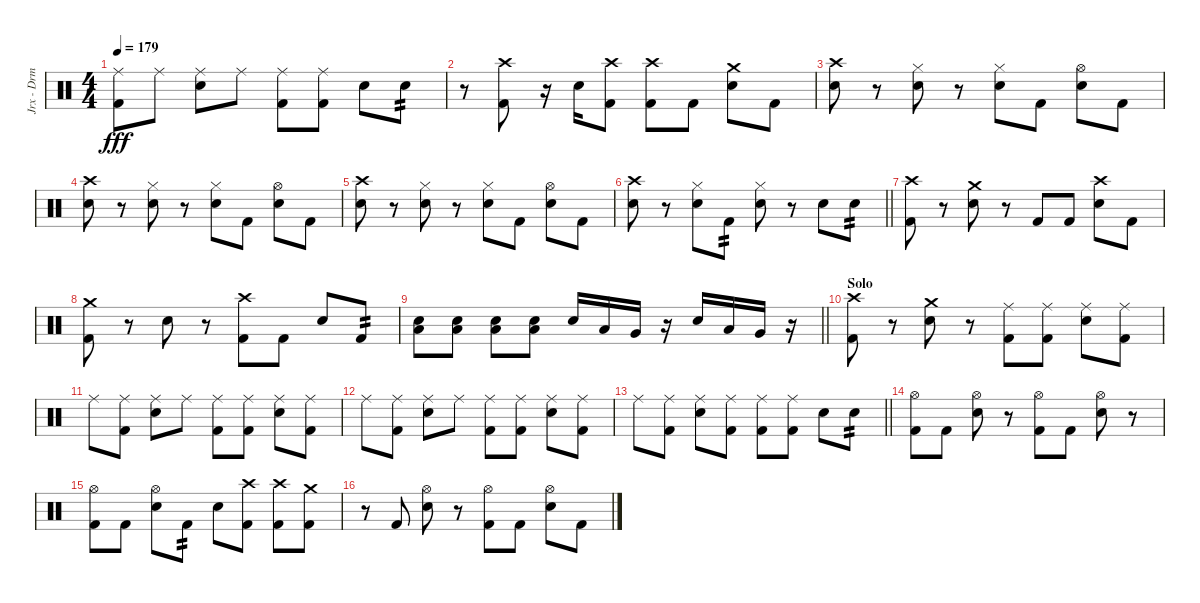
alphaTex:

\track ("Jrx - Drm" "Jrx - Drm") {instrument percussion}
\staff {score}
\articulation defaults
\ts (4 4)
\tempo 179
\clef neutral
\ks c
("Kick (hit) 2" "Ride (middle)").8{dy fff} "Ride (middle)".8 ("Snare (hit) 2" "Ride (middle)").8 "Ride (middle)".8 ("Kick (hit) 2" "Ride (middle)").8 ("Kick (hit) 2" "Ride (middle)").8 "Snare (hit) 2".8 "Snare (hit) 2".8{tp 2} |
r.8 ("Kick (hit) 2" "Crash high (hit)").8 r.16 "Snare (hit) 2".16 ("Kick (hit) 2" "Crash high (hit)").8 ("Kick (hit) 2" "Crash high (hit)").8 "Kick (hit) 2".8 ("Snare (hit) 2" "Crash medium (hit)").8 "Kick (hit) 2".8 |
("Snare (hit) 2" "Crash high (hit)").8 r.8 ("Hi-Hat (closed)" "Snare (hit) 2").8 r.8 ("Hi-Hat (closed)" "Snare (hit) 2").8 "Kick (hit) 2".8 ("Hi-Hat (open)" "Snare (hit) 2").8 "Kick (hit) 2".8 |
("Snare (hit) 2" "Crash high (hit)").8 r.8 ("Hi-Hat (closed)" "Snare (hit) 2").8 r.8 ("Hi-Hat (closed)" "Snare (hit) 2").8 "Kick (hit) 2".8 ("Hi-Hat (open)" "Snare (hit) 2").8 "Kick (hit) 2".8 |
("Snare (hit) 2" "Crash high (hit)").8 r.8 ("Hi-Hat (closed)" "Snare (hit) 2").8 r.8 ("Hi-Hat (closed)" "Snare (hit) 2").8 "Kick (hit) 2".8 ("Hi-Hat (open)" "Snare (hit) 2").8 "Kick (hit) 2".8 |
\barLineRight lightlight
("Snare (hit) 2" "Crash high (hit)").8 r.8 ("Hi-Hat (closed)" "Snare (hit) 2").8 "Kick (hit) 2".8{tp 2} ("Hi-Hat (closed)" "Snare (hit) 2").8 r.8 "Snare (hit) 2".8 "Snare (hit) 2".8{tp 2} |
("Kick (hit) 2" "Crash high (hit)").8 r.8 ("Snare (hit) 2" "Crash medium (hit)").8 r.8 "Kick (hit) 2".8 "Kick (hit) 2".8 ("Snare (hit) 2" "Crash high (hit)").8 "Kick (hit) 2".8 |
("Kick (hit) 2" "Crash medium (hit)").8 r.8 "Snare (hit) 2".8 r.8 ("Kick (hit) 2" "Crash high (hit)").8 "Kick (hit) 2".8 "Snare (hit) 2".8 "Kick (hit) 2".8{tp 2} |
\barLineRight lightlight
("Snare (hit) 2" "Low Floor Tom (hit)").8 ("Snare (hit) 2" "Low Floor Tom (hit)").8 ("Snare (hit) 2" "Low Floor Tom (hit)").8 ("Snare (hit) 2" "Low Floor Tom (hit)").8 "Snare (hit) 2".16 "Low Tom (hit)".16 "Very Low Tom (hit)".16 r.16 "Snare (hit) 2".16 "Low Tom (hit)".16 "Very Low Tom (hit)".16 r.16 |
\section ("" "Solo")
("Kick (hit) 2" "Crash high (hit)").8 r.8 ("Snare (hit) 2" "Crash medium (hit)").8 r.8 ("Kick (hit) 2" "Ride (middle)").8 ("Kick (hit) 2" "Ride (middle)").8 ("Snare (hit) 2" "Ride (middle)").8 ("Kick (hit) 2" "Ride (middle)").8 |
"Ride (middle)".8 ("Kick (hit) 2" "Ride (middle)").8 ("Snare (hit) 2" "Ride (middle)").8 "Ride (middle)".8 ("Kick (hit) 2" "Ride (middle)").8 ("Kick (hit) 2" "Ride (middle)").8 ("Snare (hit) 2" "Ride (middle)").8 ("Kick (hit) 2" "Ride (middle)").8 |
"Ride (middle)".8 ("Kick (hit) 2" "Ride (middle)").8 ("Snare (hit) 2" "Ride (middle)").8 "Ride (middle)".8 ("Kick (hit) 2" "Ride (middle)").8 ("Kick (hit) 2" "Ride (middle)").8 ("Snare (hit) 2" "Ride (middle)").8 ("Kick (hit) 2" "Ride (middle)").8 |
\barLineRight lightlight "Ride (middle)".8
("Kick (hit) 2" "Ride (middle)").8 ("Snare (hit) 2" "Ride (middle)").8 ("Kick (hit) 2" "Ride (middle)").8 ("Kick (hit) 2" "Ride (middle)").8 ("Kick (hit) 2" "Ride (middle)").8 "Snare (hit) 2".8 "Snare (hit) 2".8{tp 2} |
("Hi-Hat (open)" "Kick (hit) 2").8 "Kick (hit) 2".8 ("Hi-Hat (open)" "Snare (hit) 2").8 r.8 ("Hi-Hat (open)" "Kick (hit) 2").8 "Kick (hit) 2".8 ("Hi-Hat (open)" "Snare (hit) 2").8 r.8 |
("Hi-Hat (open)" "Kick (hit) 2").8 "Kick (hit) 2".8 ("Hi-Hat (open)" "Snare (hit) 2").8 "Kick (hit) 2".8{tp 2} "Snare (hit) 2".8 ("Kick (hit) 2" "Crash high (hit)").8 ("Kick (hit) 2" "Crash high (hit)").8 ("Kick (hit) 2" "Crash medium (hit)").8 |
r.8 "Kick (hit) 2".8 ("Hi-Hat (open)" "Snare (hit) 2").8 r.8 ("Hi-Hat (open)" "Kick (hit) 2").8 "Kick (hit) 2".8 ("Hi-Hat (open)" "Snare (hit) 2").8 "Kick (hit) 2".8
